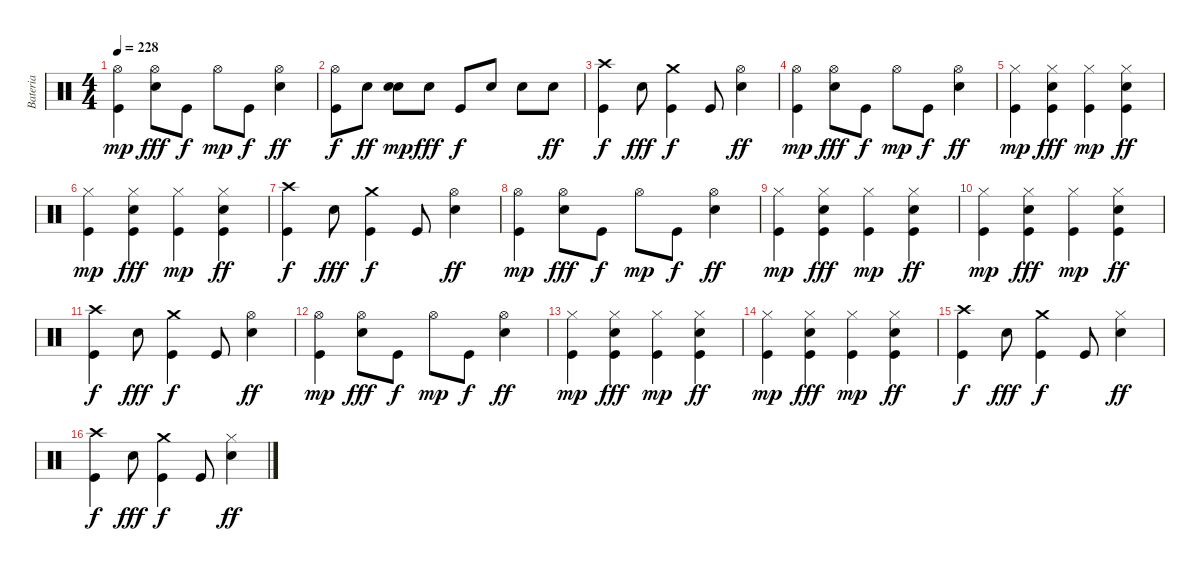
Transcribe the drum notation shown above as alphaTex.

\track ("Bateria" "Bateria") {instrument percussion}
\staff {score}
\articulation defaults
\ts (4 4)
\tempo 228
\clef neutral
\ks c
("Hi-Hat (open)" "Kick (hit)").4{dy mp} ("Hi-Hat (open)" "Electric Snare (hit)").8{dy fff} "Kick (hit)".8{dy f} "Hi-Hat (open)".8{dy mp} "Kick (hit)".8{dy f} ("Hi-Hat (open)" "Electric Snare (hit)").4{dy ff} |
("Hi-Hat (open)" "Kick (hit)").8{dy f} "Electric Snare (hit)".8{dy ff} ("Electric Snare (hit)" "Electric Snare (hit)").8{dy mp} "Electric Snare (hit)".8{dy fff} "Kick (hit)".8{dy f} "Electric Snare (hit)".8 "Electric Snare (hit)".8 "Electric Snare (hit)".8{dy ff} |
("Crash high (hit)" "Kick (hit)").4{dy f} "Electric Snare (hit)".8{dy fff} ("Crash medium (hit)" "Kick (hit)").4{dy f} "Kick (hit)".8 ("Hi-Hat (open)" "Electric Snare (hit)").4{dy ff} |
("Hi-Hat (open)" "Kick (hit)").4{dy mp} ("Hi-Hat (open)" "Electric Snare (hit)").8{dy fff} "Kick (hit)".8{dy f} "Hi-Hat (open)".8{dy mp} "Kick (hit)".8{dy f} ("Hi-Hat (open)" "Electric Snare (hit)").4{dy ff} |
("Hi-Hat (closed)" "Kick (hit)").4{dy mp} ("Hi-Hat (closed)" "Kick (hit)" "Electric Snare (hit)").4{dy fff} ("Hi-Hat (closed)" "Kick (hit)").4{dy mp} ("Hi-Hat (closed)" "Kick (hit)" "Electric Snare (hit)").4{dy ff} |
("Hi-Hat (closed)" "Kick (hit)").4{dy mp} ("Hi-Hat (closed)" "Kick (hit)" "Electric Snare (hit)").4{dy fff} ("Hi-Hat (closed)" "Kick (hit)").4{dy mp} ("Hi-Hat (closed)" "Kick (hit)" "Electric Snare (hit)").4{dy ff} |
("Crash high (hit)" "Kick (hit)").4{dy f} "Electric Snare (hit)".8{dy fff} ("Crash medium (hit)" "Kick (hit)").4{dy f} "Kick (hit)".8 ("Hi-Hat (open)" "Electric Snare (hit)").4{dy ff} |
("Hi-Hat (open)" "Kick (hit)").4{dy mp} ("Hi-Hat (open)" "Electric Snare (hit)").8{dy fff} "Kick (hit)".8{dy f} "Hi-Hat (open)".8{dy mp} "Kick (hit)".8{dy f} ("Hi-Hat (open)" "Electric Snare (hit)").4{dy ff} |
("Hi-Hat (closed)" "Kick (hit)").4{dy mp} ("Hi-Hat (closed)" "Kick (hit)" "Electric Snare (hit)").4{dy fff} ("Hi-Hat (closed)" "Kick (hit)").4{dy mp} ("Hi-Hat (closed)" "Kick (hit)" "Electric Snare (hit)").4{dy ff} |
("Hi-Hat (closed)" "Kick (hit)").4{dy mp} ("Hi-Hat (closed)" "Kick (hit)" "Electric Snare (hit)").4{dy fff} ("Hi-Hat (closed)" "Kick (hit)").4{dy mp} ("Hi-Hat (closed)" "Kick (hit)" "Electric Snare (hit)").4{dy ff} |
("Crash high (hit)" "Kick (hit)").4{dy f} "Electric Snare (hit)".8{dy fff} ("Crash medium (hit)" "Kick (hit)").4{dy f} "Kick (hit)".8 ("Hi-Hat (open)" "Electric Snare (hit)").4{dy ff} |
("Hi-Hat (open)" "Kick (hit)").4{dy mp} ("Hi-Hat (open)" "Electric Snare (hit)").8{dy fff} "Kick (hit)".8{dy f} "Hi-Hat (open)".8{dy mp} "Kick (hit)".8{dy f} ("Hi-Hat (open)" "Electric Snare (hit)").4{dy ff} |
("Hi-Hat (closed)" "Kick (hit)").4{dy mp} ("Hi-Hat (closed)" "Kick (hit)" "Electric Snare (hit)").4{dy fff} ("Hi-Hat (closed)" "Kick (hit)").4{dy mp} ("Hi-Hat (closed)" "Kick (hit)" "Electric Snare (hit)").4{dy ff} |
("Hi-Hat (closed)" "Kick (hit)").4{dy mp} ("Hi-Hat (closed)" "Kick (hit)" "Electric Snare (hit)").4{dy fff} ("Hi-Hat (closed)" "Kick (hit)").4{dy mp} ("Hi-Hat (closed)" "Kick (hit)" "Electric Snare (hit)").4{dy ff} |
("Crash high (hit)" "Kick (hit)").4{dy f} "Electric Snare (hit)".8{dy fff} ("Crash medium (hit)" "Kick (hit)").4{dy f} "Kick (hit)".8 ("Hi-Hat (closed)" "Electric Snare (hit)").4{dy ff} |
("Crash high (hit)" "Kick (hit)").4{dy f} "Electric Snare (hit)".8{dy fff} ("Crash medium (hit)" "Kick (hit)").4{dy f} "Kick (hit)".8 ("Hi-Hat (closed)" "Electric Snare (hit)").4{dy ff}
